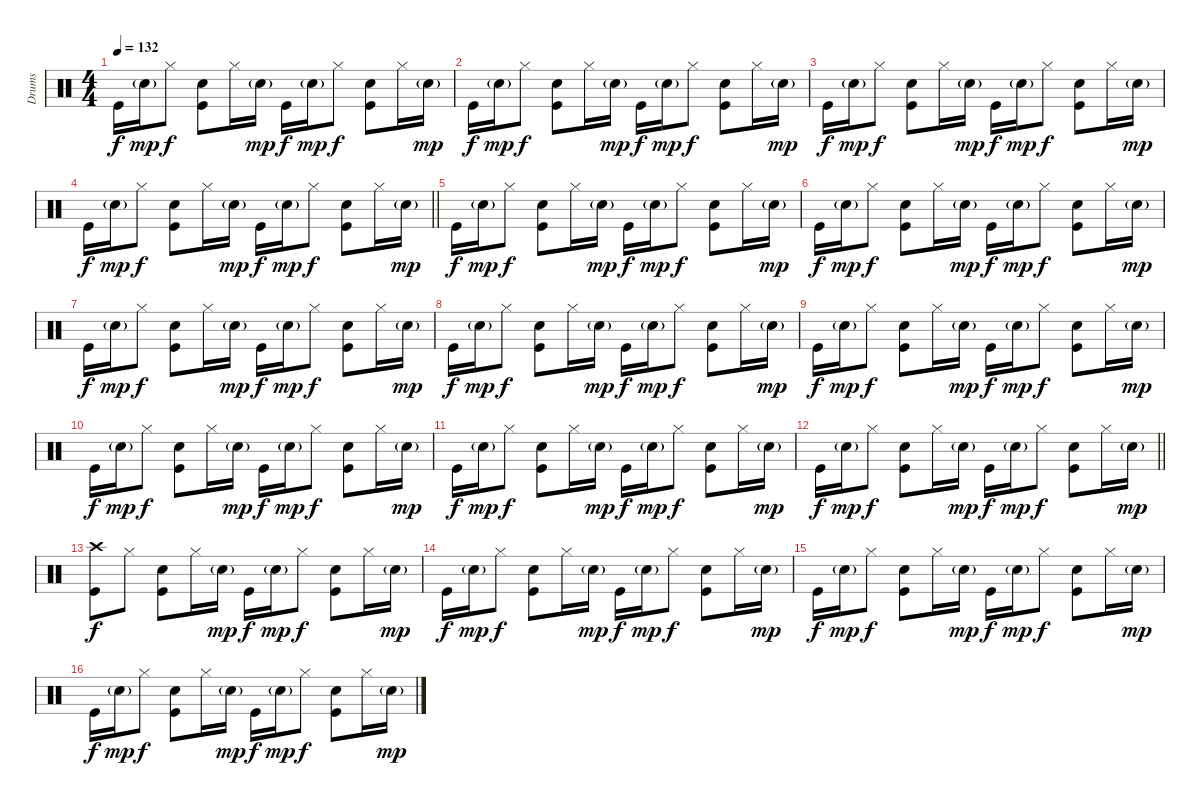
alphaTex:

\track ("Drums" "Drums") {instrument percussion}
\staff {score}
\articulation defaults
\ts (4 4)
\tempo 132
\clef neutral
\ks c "Kick (hit)".16{dy f} "Electric Snare (hit)"{g}.16{dy mp} "Hi-Hat (closed)".8{dy f}
("Electric Snare (hit)" "Kick (hit)").8 "Hi-Hat (closed)".16 "Electric Snare (hit)"{g}.16{dy mp} "Kick (hit)".16{dy f} "Electric Snare (hit)"{g}.16{dy mp} "Hi-Hat (closed)".8{dy f} ("Electric Snare (hit)" "Kick (hit)").8 "Hi-Hat (closed)".16 "Electric Snare (hit)"{g}.16{dy mp} |
"Kick (hit)".16{dy f} "Electric Snare (hit)"{g}.16{dy mp} "Hi-Hat (closed)".8{dy f} ("Electric Snare (hit)" "Kick (hit)").8 "Hi-Hat (closed)".16 "Electric Snare (hit)"{g}.16{dy mp} "Kick (hit)".16{dy f} "Electric Snare (hit)"{g}.16{dy mp} "Hi-Hat (closed)".8{dy f} ("Electric Snare (hit)" "Kick (hit)").8 "Hi-Hat (closed)".16 "Electric Snare (hit)"{g}.16{dy mp} |
"Kick (hit)".16{dy f} "Electric Snare (hit)"{g}.16{dy mp} "Hi-Hat (closed)".8{dy f} ("Electric Snare (hit)" "Kick (hit)").8 "Hi-Hat (closed)".16 "Electric Snare (hit)"{g}.16{dy mp} "Kick (hit)".16{dy f} "Electric Snare (hit)"{g}.16{dy mp} "Hi-Hat (closed)".8{dy f} ("Electric Snare (hit)" "Kick (hit)").8 "Hi-Hat (closed)".16 "Electric Snare (hit)"{g}.16{dy mp} |
\barLineRight lightlight "Kick (hit)".16{dy f} "Electric Snare (hit)"{g}.16{dy mp} "Hi-Hat (closed)".8{dy f}
("Electric Snare (hit)" "Kick (hit)").8 "Hi-Hat (closed)".16 "Electric Snare (hit)"{g}.16{dy mp} "Kick (hit)".16{dy f} "Electric Snare (hit)"{g}.16{dy mp} "Hi-Hat (closed)".8{dy f} ("Electric Snare (hit)" "Kick (hit)").8 "Hi-Hat (closed)".16 "Electric Snare (hit)"{g}.16{dy mp} |
"Kick (hit)".16{dy f} "Electric Snare (hit)"{g}.16{dy mp} "Hi-Hat (closed)".8{dy f} ("Electric Snare (hit)" "Kick (hit)").8 "Hi-Hat (closed)".16 "Electric Snare (hit)"{g}.16{dy mp} "Kick (hit)".16{dy f} "Electric Snare (hit)"{g}.16{dy mp} "Hi-Hat (closed)".8{dy f} ("Electric Snare (hit)" "Kick (hit)").8 "Hi-Hat (closed)".16 "Electric Snare (hit)"{g}.16{dy mp} |
"Kick (hit)".16{dy f} "Electric Snare (hit)"{g}.16{dy mp} "Hi-Hat (closed)".8{dy f} ("Electric Snare (hit)" "Kick (hit)").8 "Hi-Hat (closed)".16 "Electric Snare (hit)"{g}.16{dy mp} "Kick (hit)".16{dy f} "Electric Snare (hit)"{g}.16{dy mp} "Hi-Hat (closed)".8{dy f} ("Electric Snare (hit)" "Kick (hit)").8 "Hi-Hat (closed)".16 "Electric Snare (hit)"{g}.16{dy mp} |
"Kick (hit)".16{dy f} "Electric Snare (hit)"{g}.16{dy mp} "Hi-Hat (closed)".8{dy f} ("Electric Snare (hit)" "Kick (hit)").8 "Hi-Hat (closed)".16 "Electric Snare (hit)"{g}.16{dy mp} "Kick (hit)".16{dy f} "Electric Snare (hit)"{g}.16{dy mp} "Hi-Hat (closed)".8{dy f} ("Electric Snare (hit)" "Kick (hit)").8 "Hi-Hat (closed)".16 "Electric Snare (hit)"{g}.16{dy mp} |
"Kick (hit)".16{dy f} "Electric Snare (hit)"{g}.16{dy mp} "Hi-Hat (closed)".8{dy f} ("Electric Snare (hit)" "Kick (hit)").8 "Hi-Hat (closed)".16 "Electric Snare (hit)"{g}.16{dy mp} "Kick (hit)".16{dy f} "Electric Snare (hit)"{g}.16{dy mp} "Hi-Hat (closed)".8{dy f} ("Electric Snare (hit)" "Kick (hit)").8 "Hi-Hat (closed)".16 "Electric Snare (hit)"{g}.16{dy mp} |
"Kick (hit)".16{dy f} "Electric Snare (hit)"{g}.16{dy mp} "Hi-Hat (closed)".8{dy f} ("Electric Snare (hit)" "Kick (hit)").8 "Hi-Hat (closed)".16 "Electric Snare (hit)"{g}.16{dy mp} "Kick (hit)".16{dy f} "Electric Snare (hit)"{g}.16{dy mp} "Hi-Hat (closed)".8{dy f} ("Electric Snare (hit)" "Kick (hit)").8 "Hi-Hat (closed)".16 "Electric Snare (hit)"{g}.16{dy mp} |
"Kick (hit)".16{dy f} "Electric Snare (hit)"{g}.16{dy mp} "Hi-Hat (closed)".8{dy f} ("Electric Snare (hit)" "Kick (hit)").8 "Hi-Hat (closed)".16 "Electric Snare (hit)"{g}.16{dy mp} "Kick (hit)".16{dy f} "Electric Snare (hit)"{g}.16{dy mp} "Hi-Hat (closed)".8{dy f} ("Electric Snare (hit)" "Kick (hit)").8 "Hi-Hat (closed)".16 "Electric Snare (hit)"{g}.16{dy mp} |
"Kick (hit)".16{dy f} "Electric Snare (hit)"{g}.16{dy mp} "Hi-Hat (closed)".8{dy f} ("Electric Snare (hit)" "Kick (hit)").8 "Hi-Hat (closed)".16 "Electric Snare (hit)"{g}.16{dy mp} "Kick (hit)".16{dy f} "Electric Snare (hit)"{g}.16{dy mp} "Hi-Hat (closed)".8{dy f} ("Electric Snare (hit)" "Kick (hit)").8 "Hi-Hat (closed)".16 "Electric Snare (hit)"{g}.16{dy mp} |
\barLineRight lightlight "Kick (hit)".16{dy f} "Electric Snare (hit)"{g}.16{dy mp} "Hi-Hat (closed)".8{dy f}
("Electric Snare (hit)" "Kick (hit)").8 "Hi-Hat (closed)".16 "Electric Snare (hit)"{g}.16{dy mp} "Kick (hit)".16{dy f} "Electric Snare (hit)"{g}.16{dy mp} "Hi-Hat (closed)".8{dy f} ("Electric Snare (hit)" "Kick (hit)").8 "Hi-Hat (closed)".16 "Electric Snare (hit)"{g}.16{dy mp} |
("Crash high (hit)" "Kick (hit)").8{dy f} "Hi-Hat (closed)".8 ("Electric Snare (hit)" "Kick (hit)").8 "Hi-Hat (closed)".16 "Electric Snare (hit)"{g}.16{dy mp} "Kick (hit)".16{dy f} "Electric Snare (hit)"{g}.16{dy mp} "Hi-Hat (closed)".8{dy f} ("Electric Snare (hit)" "Kick (hit)").8 "Hi-Hat (closed)".16 "Electric Snare (hit)"{g}.16{dy mp} |
"Kick (hit)".16{dy f} "Electric Snare (hit)"{g}.16{dy mp} "Hi-Hat (closed)".8{dy f} ("Electric Snare (hit)" "Kick (hit)").8 "Hi-Hat (closed)".16 "Electric Snare (hit)"{g}.16{dy mp} "Kick (hit)".16{dy f} "Electric Snare (hit)"{g}.16{dy mp} "Hi-Hat (closed)".8{dy f} ("Electric Snare (hit)" "Kick (hit)").8 "Hi-Hat (closed)".16 "Electric Snare (hit)"{g}.16{dy mp} |
"Kick (hit)".16{dy f} "Electric Snare (hit)"{g}.16{dy mp} "Hi-Hat (closed)".8{dy f} ("Electric Snare (hit)" "Kick (hit)").8 "Hi-Hat (closed)".16 "Electric Snare (hit)"{g}.16{dy mp} "Kick (hit)".16{dy f} "Electric Snare (hit)"{g}.16{dy mp} "Hi-Hat (closed)".8{dy f} ("Electric Snare (hit)" "Kick (hit)").8 "Hi-Hat (closed)".16 "Electric Snare (hit)"{g}.16{dy mp} |
"Kick (hit)".16{dy f} "Electric Snare (hit)"{g}.16{dy mp} "Hi-Hat (closed)".8{dy f} ("Electric Snare (hit)" "Kick (hit)").8 "Hi-Hat (closed)".16 "Electric Snare (hit)"{g}.16{dy mp} "Kick (hit)".16{dy f} "Electric Snare (hit)"{g}.16{dy mp} "Hi-Hat (closed)".8{dy f} ("Electric Snare (hit)" "Kick (hit)").8 "Hi-Hat (closed)".16 "Electric Snare (hit)"{g}.16{dy mp}
